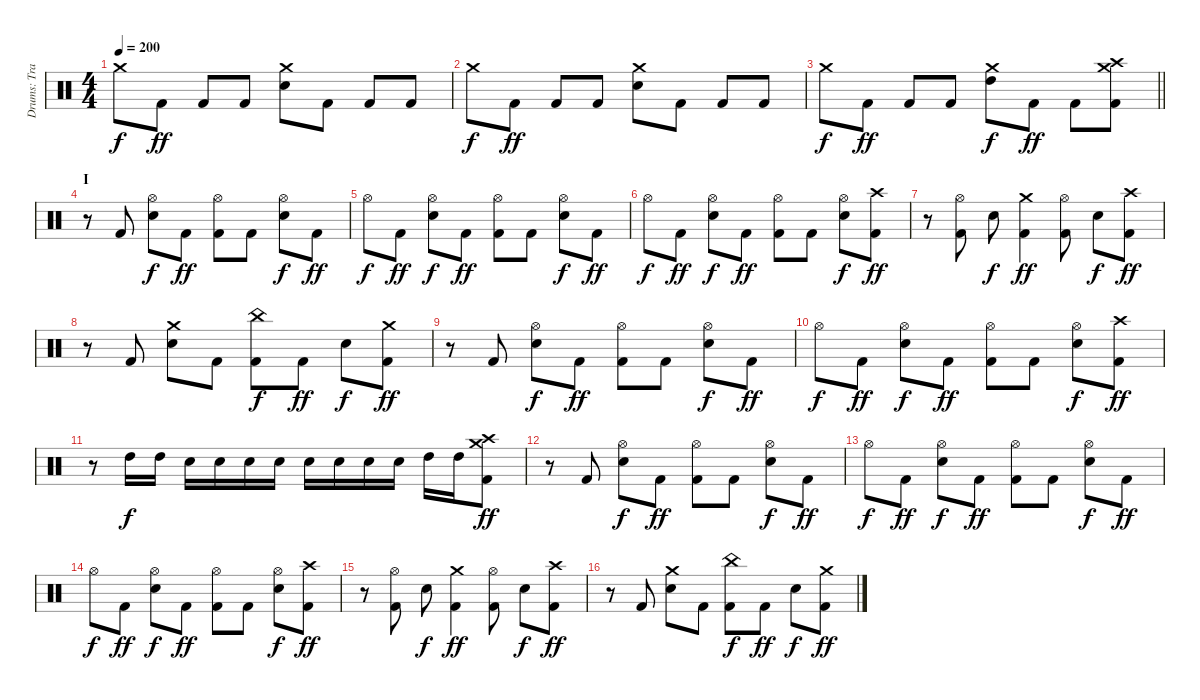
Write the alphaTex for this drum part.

\track ("Drums: Travis Clarke" "Drums: Tra") {instrument percussion}
\staff {score}
\articulation defaults
\ts (4 4)
\tempo 200
\clef neutral
\ks c "Crash medium (hit)".8{dy f} "Kick (hit) 2".8{dy ff} "Kick (hit) 2".8 "Kick (hit) 2".8
("Snare (hit) 2" "Crash medium (hit)").8 "Kick (hit) 2".8 "Kick (hit) 2".8 "Kick (hit) 2".8 |
"Crash medium (hit)".8{dy f} "Kick (hit) 2".8{dy ff} "Kick (hit) 2".8 "Kick (hit) 2".8 ("Snare (hit) 2" "Crash medium (hit)").8 "Kick (hit) 2".8 "Kick (hit) 2".8 "Kick (hit) 2".8 |
\barLineRight lightlight "Crash medium (hit)".8{dy f} "Kick (hit) 2".8{dy ff} "Kick (hit) 2".8 "Kick (hit) 2".8
("High Tom (hit)" "Crash medium (hit)").8{dy f} "Kick (hit) 2".8{dy ff} "Kick (hit) 2".8 ("Kick (hit) 2" "Crash high (hit)" "Crash medium (hit)").8 |
\section ("" "I")
r.8 "Kick (hit) 2".8 ("Snare (hit) 2" "Hi-Hat (open)").8{dy f} "Kick (hit) 2".8{dy ff} ("Kick (hit) 2" "Hi-Hat (open)").8 "Kick (hit) 2".8 ("Snare (hit) 2" "Hi-Hat (open)").8{dy f} "Kick (hit) 2".8{dy ff} |
"Hi-Hat (open)".8{dy f} "Kick (hit) 2".8{dy ff} ("Snare (hit) 2" "Hi-Hat (open)").8{dy f} "Kick (hit) 2".8{dy ff} ("Kick (hit) 2" "Hi-Hat (open)").8 "Kick (hit) 2".8 ("Snare (hit) 2" "Hi-Hat (open)").8{dy f} "Kick (hit) 2".8{dy ff} |
"Hi-Hat (open)".8{dy f} "Kick (hit) 2".8{dy ff} ("Snare (hit) 2" "Hi-Hat (open)").8{dy f} "Kick (hit) 2".8{dy ff} ("Kick (hit) 2" "Hi-Hat (open)").8 "Kick (hit) 2".8 ("Snare (hit) 2" "Hi-Hat (open)").8{dy f} ("Kick (hit) 2" "Crash high (hit)").8{dy ff} |
r.8 ("Kick (hit) 2" "Hi-Hat (open)").8 "Snare (hit) 2".8{dy f} ("Kick (hit) 2" "Crash medium (hit)").4{dy ff} ("Kick (hit) 2" "Hi-Hat (open)").8 "Snare (hit) 2".8{dy f} ("Kick (hit) 2" "Crash high (hit)").8{dy ff} |
r.8 "Kick (hit) 2".8 ("Snare (hit) 2" "Crash medium (hit)").8 "Kick (hit) 2".8 ("Kick (hit) 2" "China (hit)").8{dy f} "Kick (hit) 2".8{dy ff} "Snare (hit) 2".8{dy f} ("Kick (hit) 2" "Crash medium (hit)").8{dy ff} |
r.8 "Kick (hit) 2".8 ("Snare (hit) 2" "Hi-Hat (open)").8{dy f} "Kick (hit) 2".8{dy ff} ("Kick (hit) 2" "Hi-Hat (open)").8 "Kick (hit) 2".8 ("Snare (hit) 2" "Hi-Hat (open)").8{dy f} "Kick (hit) 2".8{dy ff} |
"Hi-Hat (open)".8{dy f} "Kick (hit) 2".8{dy ff} ("Snare (hit) 2" "Hi-Hat (open)").8{dy f} "Kick (hit) 2".8{dy ff} ("Kick (hit) 2" "Hi-Hat (open)").8 "Kick (hit) 2".8 ("Snare (hit) 2" "Hi-Hat (open)").8{dy f} ("Kick (hit) 2" "Crash high (hit)").8{dy ff} |
r.8 "High Tom (hit)".16{dy f} "High Tom (hit)".16 "Snare (hit) 2".16 "Snare (hit) 2".16 "Snare (hit) 2".16 "Snare (hit) 2".16 "Snare (hit) 2".16 "Snare (hit) 2".16 "Snare (hit) 2".16 "Snare (hit) 2".16 "High Tom (hit)".16 "High Tom (hit)".16 ("Kick (hit) 2" "Crash high (hit)" "Crash medium (hit)").8{dy ff} |
r.8 "Kick (hit) 2".8 ("Snare (hit) 2" "Hi-Hat (open)").8{dy f} "Kick (hit) 2".8{dy ff} ("Kick (hit) 2" "Hi-Hat (open)").8 "Kick (hit) 2".8 ("Snare (hit) 2" "Hi-Hat (open)").8{dy f} "Kick (hit) 2".8{dy ff} |
"Hi-Hat (open)".8{dy f} "Kick (hit) 2".8{dy ff} ("Snare (hit) 2" "Hi-Hat (open)").8{dy f} "Kick (hit) 2".8{dy ff} ("Kick (hit) 2" "Hi-Hat (open)").8 "Kick (hit) 2".8 ("Snare (hit) 2" "Hi-Hat (open)").8{dy f} "Kick (hit) 2".8{dy ff} |
"Hi-Hat (open)".8{dy f} "Kick (hit) 2".8{dy ff} ("Snare (hit) 2" "Hi-Hat (open)").8{dy f} "Kick (hit) 2".8{dy ff} ("Kick (hit) 2" "Hi-Hat (open)").8 "Kick (hit) 2".8 ("Snare (hit) 2" "Hi-Hat (open)").8{dy f} ("Kick (hit) 2" "Crash high (hit)").8{dy ff} |
r.8 ("Kick (hit) 2" "Hi-Hat (open)").8 "Snare (hit) 2".8{dy f} ("Kick (hit) 2" "Crash medium (hit)").4{dy ff} ("Kick (hit) 2" "Hi-Hat (open)").8 "Snare (hit) 2".8{dy f} ("Kick (hit) 2" "Crash high (hit)").8{dy ff} |
r.8 "Kick (hit) 2".8 ("Snare (hit) 2" "Crash medium (hit)").8 "Kick (hit) 2".8 ("Kick (hit) 2" "China (hit)").8{dy f} "Kick (hit) 2".8{dy ff} "Snare (hit) 2".8{dy f} ("Kick (hit) 2" "Crash medium (hit)").8{dy ff}
